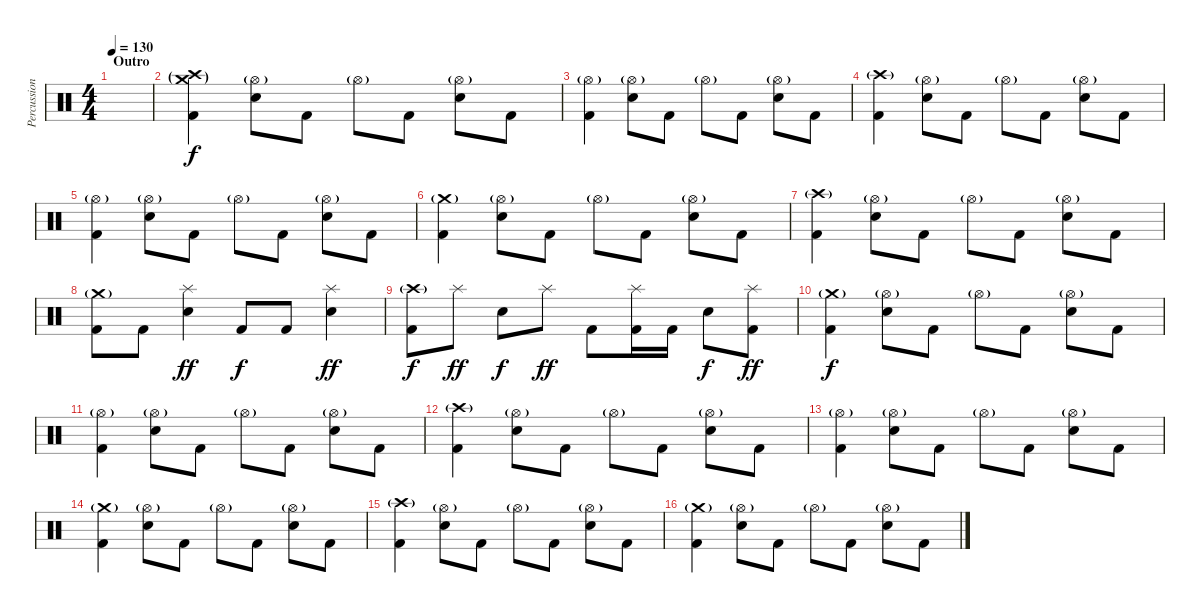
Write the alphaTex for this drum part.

\track ("Percussion" "Percussion") {instrument percussion}
\staff {score}
\articulation defaults
\ts (4 4)
\section ("" "Outro")
\tempo 130
\clef neutral
\ks c
|
("Crash medium (hit)"{g} "Crash high (hit)"{g} "Kick (hit) 2").4 ("Hi-Hat (open)"{g} "Electric Snare (hit)").8 "Kick (hit) 2".8 "Hi-Hat (open)"{g}.8 "Kick (hit) 2".8 ("Hi-Hat (open)"{g} "Electric Snare (hit)").8 "Kick (hit) 2".8 |
("Hi-Hat (open)"{g} "Kick (hit) 2").4 ("Hi-Hat (open)"{g} "Electric Snare (hit)").8 "Kick (hit) 2".8 "Hi-Hat (open)"{g}.8 "Kick (hit) 2".8 ("Hi-Hat (open)"{g} "Electric Snare (hit)").8 "Kick (hit) 2".8 |
("Crash high (hit)"{g} "Kick (hit) 2").4 ("Hi-Hat (open)"{g} "Electric Snare (hit)").8 "Kick (hit) 2".8 "Hi-Hat (open)"{g}.8 "Kick (hit) 2".8 ("Hi-Hat (open)"{g} "Electric Snare (hit)").8 "Kick (hit) 2".8 |
("Hi-Hat (open)"{g} "Kick (hit) 2").4 ("Hi-Hat (open)"{g} "Electric Snare (hit)").8 "Kick (hit) 2".8 "Hi-Hat (open)"{g}.8 "Kick (hit) 2".8 ("Hi-Hat (open)"{g} "Electric Snare (hit)").8 "Kick (hit) 2".8 |
("Crash medium (hit)"{g} "Kick (hit) 2").4 ("Hi-Hat (open)"{g} "Electric Snare (hit)").8 "Kick (hit) 2".8 "Hi-Hat (open)"{g}.8 "Kick (hit) 2".8 ("Hi-Hat (open)"{g} "Electric Snare (hit)").8 "Kick (hit) 2".8 |
("Crash high (hit)"{g} "Kick (hit) 2").4 ("Hi-Hat (open)"{g} "Electric Snare (hit)").8 "Kick (hit) 2".8 "Hi-Hat (open)"{g}.8 "Kick (hit) 2".8 ("Hi-Hat (open)"{g} "Electric Snare (hit)").8 "Kick (hit) 2".8 |
("Crash medium (hit)"{g} "Kick (hit) 2").8 "Kick (hit) 2".8 ("Splash (hit)" "Electric Snare (hit)").4{dy ff} "Kick (hit) 2".8{dy f} "Kick (hit) 2".8 ("Splash (hit)" "Electric Snare (hit)").4{dy ff} |
("Crash high (hit)"{g} "Kick (hit) 2").8{dy f} "Splash (hit)".8{dy ff} "Electric Snare (hit)".8{dy f} "Splash (hit)".8{dy ff} "Kick (hit) 2".8 ("Splash (hit)" "Kick (hit) 2").16 "Kick (hit) 2".16 "Electric Snare (hit)".8{dy f} ("Splash (hit)" "Kick (hit) 2").8{dy ff} |
("Crash medium (hit)"{g} "Kick (hit) 2").4{dy f} ("Hi-Hat (open)"{g} "Electric Snare (hit)").8 "Kick (hit) 2".8 "Hi-Hat (open)"{g}.8 "Kick (hit) 2".8 ("Hi-Hat (open)"{g} "Electric Snare (hit)").8 "Kick (hit) 2".8 |
("Hi-Hat (open)"{g} "Kick (hit) 2").4 ("Hi-Hat (open)"{g} "Electric Snare (hit)").8 "Kick (hit) 2".8 "Hi-Hat (open)"{g}.8 "Kick (hit) 2".8 ("Hi-Hat (open)"{g} "Electric Snare (hit)").8 "Kick (hit) 2".8 |
("Crash high (hit)"{g} "Kick (hit) 2").4 ("Hi-Hat (open)"{g} "Electric Snare (hit)").8 "Kick (hit) 2".8 "Hi-Hat (open)"{g}.8 "Kick (hit) 2".8 ("Hi-Hat (open)"{g} "Electric Snare (hit)").8 "Kick (hit) 2".8 |
("Hi-Hat (open)"{g} "Kick (hit) 2").4 ("Hi-Hat (open)"{g} "Electric Snare (hit)").8 "Kick (hit) 2".8 "Hi-Hat (open)"{g}.8 "Kick (hit) 2".8 ("Hi-Hat (open)"{g} "Electric Snare (hit)").8 "Kick (hit) 2".8 |
("Crash medium (hit)"{g} "Kick (hit) 2").4 ("Hi-Hat (open)"{g} "Electric Snare (hit)").8 "Kick (hit) 2".8 "Hi-Hat (open)"{g}.8 "Kick (hit) 2".8 ("Hi-Hat (open)"{g} "Electric Snare (hit)").8 "Kick (hit) 2".8 |
("Crash high (hit)"{g} "Kick (hit) 2").4 ("Hi-Hat (open)"{g} "Electric Snare (hit)").8 "Kick (hit) 2".8 "Hi-Hat (open)"{g}.8 "Kick (hit) 2".8 ("Hi-Hat (open)"{g} "Electric Snare (hit)").8 "Kick (hit) 2".8 |
("Crash medium (hit)"{g} "Kick (hit) 2").4 ("Hi-Hat (open)"{g} "Electric Snare (hit)").8 "Kick (hit) 2".8 "Hi-Hat (open)"{g}.8 "Kick (hit) 2".8 ("Hi-Hat (open)"{g} "Electric Snare (hit)").8 "Kick (hit) 2".8
